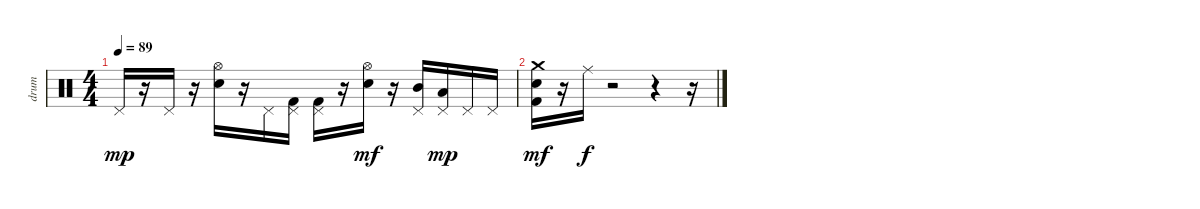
\track ("drum" "drum") {instrument percussion}
\staff {score}
\articulation defaults
\ts (4 4)
\tempo 89
\clef neutral
\ks c "Pedal Hi-Hat (hit)".16{dy mp}
r.16 "Pedal Hi-Hat (hit)".16 r.16 ("Electric Snare (hit)" "Hi-Hat (open)").16 r.16 "Pedal Hi-Hat (hit)".16 ("Pedal Hi-Hat (hit)" "Kick (hit) 2").16 ("Pedal Hi-Hat (hit)" "Kick (hit) 2").16 r.16 ("Hi-Hat (open)" "Electric Snare (hit)").16{dy mf} r.16 ("Pedal Hi-Hat (hit)" "Mid Tom (hit)").16 ("Pedal Hi-Hat (hit)" "Low Tom (hit)").16{dy mp} "Pedal Hi-Hat (hit)".16 "Pedal Hi-Hat (hit)".16 |
("Kick (hit) 2" "Crash medium (hit)" "Electric Snare (hit)").16{dy mf} r.16 "Ride (middle)".16{dy f} r.2 r.4 r.16
